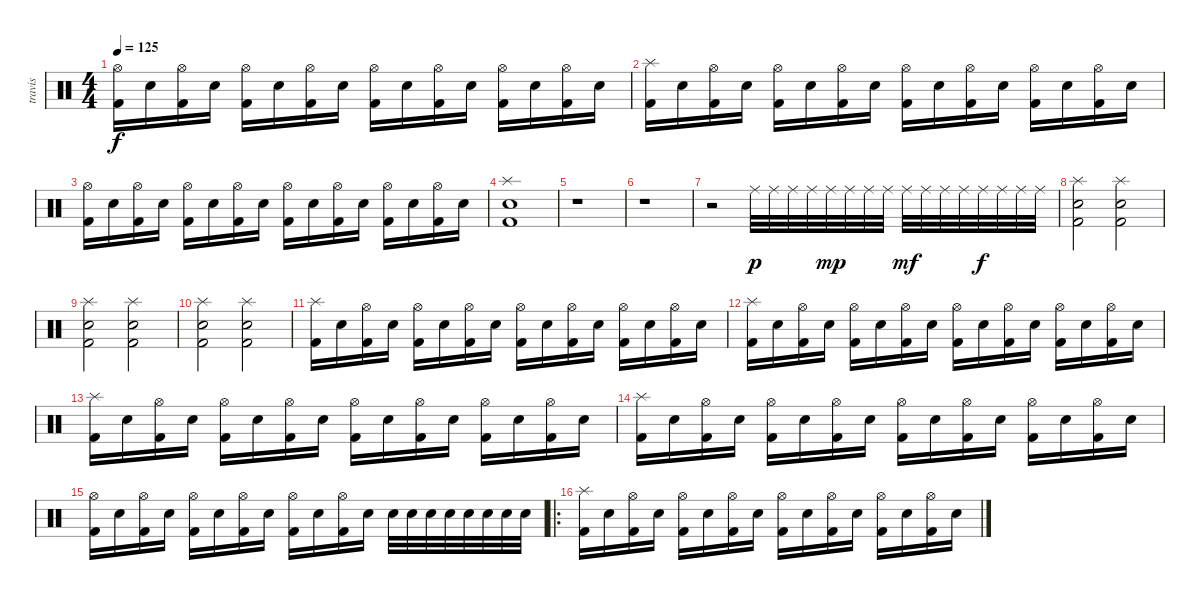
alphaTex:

\track ("travis" "travis") {instrument percussion}
\staff {score}
\articulation defaults
\ts (4 4)
\tempo 125
\clef neutral
\ks c
("Hi-Hat (open)" "Kick (hit) 2").16{dy f} "Electric Snare (hit)".16 ("Hi-Hat (open)" "Kick (hit) 2").16 "Electric Snare (hit)".16 ("Hi-Hat (open)" "Kick (hit) 2").16 "Electric Snare (hit)".16 ("Hi-Hat (open)" "Kick (hit) 2").16 "Electric Snare (hit)".16 ("Hi-Hat (open)" "Kick (hit) 2").16 "Electric Snare (hit)".16 ("Hi-Hat (open)" "Kick (hit) 2").16 "Electric Snare (hit)".16 ("Hi-Hat (open)" "Kick (hit) 2").16 "Electric Snare (hit)".16 ("Hi-Hat (open)" "Kick (hit) 2").16 "Electric Snare (hit)".16 |
("Splash (hit)" "Kick (hit) 2").16 "Electric Snare (hit)".16 ("Hi-Hat (open)" "Kick (hit) 2").16 "Electric Snare (hit)".16 ("Hi-Hat (open)" "Kick (hit) 2").16 "Electric Snare (hit)".16 ("Hi-Hat (open)" "Kick (hit) 2").16 "Electric Snare (hit)".16 ("Hi-Hat (open)" "Kick (hit) 2").16 "Electric Snare (hit)".16 ("Hi-Hat (open)" "Kick (hit) 2").16 "Electric Snare (hit)".16 ("Hi-Hat (open)" "Kick (hit) 2").16 "Electric Snare (hit)".16 ("Hi-Hat (open)" "Kick (hit) 2").16 "Electric Snare (hit)".16 |
("Hi-Hat (open)" "Kick (hit) 2").16 "Electric Snare (hit)".16 ("Hi-Hat (open)" "Kick (hit) 2").16 "Electric Snare (hit)".16 ("Hi-Hat (open)" "Kick (hit) 2").16 "Electric Snare (hit)".16 ("Hi-Hat (open)" "Kick (hit) 2").16 "Electric Snare (hit)".16 ("Hi-Hat (open)" "Kick (hit) 2").16 "Electric Snare (hit)".16 ("Hi-Hat (open)" "Kick (hit) 2").16 "Electric Snare (hit)".16 ("Hi-Hat (open)" "Kick (hit) 2").16 "Electric Snare (hit)".16 ("Hi-Hat (open)" "Kick (hit) 2").16 "Electric Snare (hit)".16 |
("Splash (hit)" "Electric Snare (hit)" "Kick (hit) 2").1 |
r.1 |
r.1 |
r.2 "Ride (middle)".32{dy p} "Ride (middle)".32 "Ride (middle)".32 "Ride (middle)".32 "Ride (middle)".32{dy mp} "Ride (middle)".32 "Ride (middle)".32 "Ride (middle)".32 "Ride (middle)".32{dy mf} "Ride (middle)".32 "Ride (middle)".32 "Ride (middle)".32 "Ride (middle)".32{dy f} "Ride (middle)".32 "Ride (middle)".32 "Ride (middle)".32 |
("Splash (hit)" "Electric Snare (hit)" "Kick (hit) 2").2 ("Splash (hit)" "Electric Snare (hit)" "Kick (hit) 2").2 |
("Splash (hit)" "Electric Snare (hit)" "Kick (hit) 2").2 ("Splash (hit)" "Electric Snare (hit)" "Kick (hit) 2").2 |
("Splash (hit)" "Electric Snare (hit)" "Kick (hit) 2").2 ("Splash (hit)" "Electric Snare (hit)" "Kick (hit) 2").2 |
("Splash (hit)" "Kick (hit) 2").16 "Electric Snare (hit)".16 ("Hi-Hat (open)" "Kick (hit) 2").16 "Electric Snare (hit)".16 ("Hi-Hat (open)" "Kick (hit) 2").16 "Electric Snare (hit)".16 ("Hi-Hat (open)" "Kick (hit) 2").16 "Electric Snare (hit)".16 ("Hi-Hat (open)" "Kick (hit) 2").16 "Electric Snare (hit)".16 ("Hi-Hat (open)" "Kick (hit) 2").16 "Electric Snare (hit)".16 ("Hi-Hat (open)" "Kick (hit) 2").16 "Electric Snare (hit)".16 ("Hi-Hat (open)" "Kick (hit) 2").16 "Electric Snare (hit)".16 |
("Splash (hit)" "Kick (hit) 2").16 "Electric Snare (hit)".16 ("Hi-Hat (open)" "Kick (hit) 2").16 "Electric Snare (hit)".16 ("Hi-Hat (open)" "Kick (hit) 2").16 "Electric Snare (hit)".16 ("Hi-Hat (open)" "Kick (hit) 2").16 "Electric Snare (hit)".16 ("Hi-Hat (open)" "Kick (hit) 2").16 "Electric Snare (hit)".16 ("Hi-Hat (open)" "Kick (hit) 2").16 "Electric Snare (hit)".16 ("Hi-Hat (open)" "Kick (hit) 2").16 "Electric Snare (hit)".16 ("Hi-Hat (open)" "Kick (hit) 2").16 "Electric Snare (hit)".16 |
("Splash (hit)" "Kick (hit) 2").16 "Electric Snare (hit)".16 ("Hi-Hat (open)" "Kick (hit) 2").16 "Electric Snare (hit)".16 ("Hi-Hat (open)" "Kick (hit) 2").16 "Electric Snare (hit)".16 ("Hi-Hat (open)" "Kick (hit) 2").16 "Electric Snare (hit)".16 ("Hi-Hat (open)" "Kick (hit) 2").16 "Electric Snare (hit)".16 ("Hi-Hat (open)" "Kick (hit) 2").16 "Electric Snare (hit)".16 ("Hi-Hat (open)" "Kick (hit) 2").16 "Electric Snare (hit)".16 ("Hi-Hat (open)" "Kick (hit) 2").16 "Electric Snare (hit)".16 |
("Splash (hit)" "Kick (hit) 2").16 "Electric Snare (hit)".16 ("Hi-Hat (open)" "Kick (hit) 2").16 "Electric Snare (hit)".16 ("Hi-Hat (open)" "Kick (hit) 2").16 "Electric Snare (hit)".16 ("Hi-Hat (open)" "Kick (hit) 2").16 "Electric Snare (hit)".16 ("Hi-Hat (open)" "Kick (hit) 2").16 "Electric Snare (hit)".16 ("Hi-Hat (open)" "Kick (hit) 2").16 "Electric Snare (hit)".16 ("Hi-Hat (open)" "Kick (hit) 2").16 "Electric Snare (hit)".16 ("Hi-Hat (open)" "Kick (hit) 2").16 "Electric Snare (hit)".16 |
("Hi-Hat (open)" "Kick (hit) 2").16 "Electric Snare (hit)".16 ("Hi-Hat (open)" "Kick (hit) 2").16 "Electric Snare (hit)".16 ("Hi-Hat (open)" "Kick (hit) 2").16 "Electric Snare (hit)".16 ("Hi-Hat (open)" "Kick (hit) 2").16 "Electric Snare (hit)".16 ("Hi-Hat (open)" "Kick (hit) 2").16 "Electric Snare (hit)".16 ("Hi-Hat (open)" "Kick (hit) 2").16 "Electric Snare (hit)".16 "Electric Snare (hit)".32 "Electric Snare (hit)".32 "Electric Snare (hit)".32 "Electric Snare (hit)".32 "Electric Snare (hit)".32 "Electric Snare (hit)".32 "Electric Snare (hit)".32 "Electric Snare (hit)".32 |
\ro
("Splash (hit)" "Kick (hit) 2").16 "Electric Snare (hit)".16 ("Hi-Hat (open)" "Kick (hit) 2").16 "Electric Snare (hit)".16 ("Hi-Hat (open)" "Kick (hit) 2").16 "Electric Snare (hit)".16 ("Hi-Hat (open)" "Kick (hit) 2").16 "Electric Snare (hit)".16 ("Hi-Hat (open)" "Kick (hit) 2").16 "Electric Snare (hit)".16 ("Hi-Hat (open)" "Kick (hit) 2").16 "Electric Snare (hit)".16 ("Hi-Hat (open)" "Kick (hit) 2").16 "Electric Snare (hit)".16 ("Hi-Hat (open)" "Kick (hit) 2").16 "Electric Snare (hit)".16
